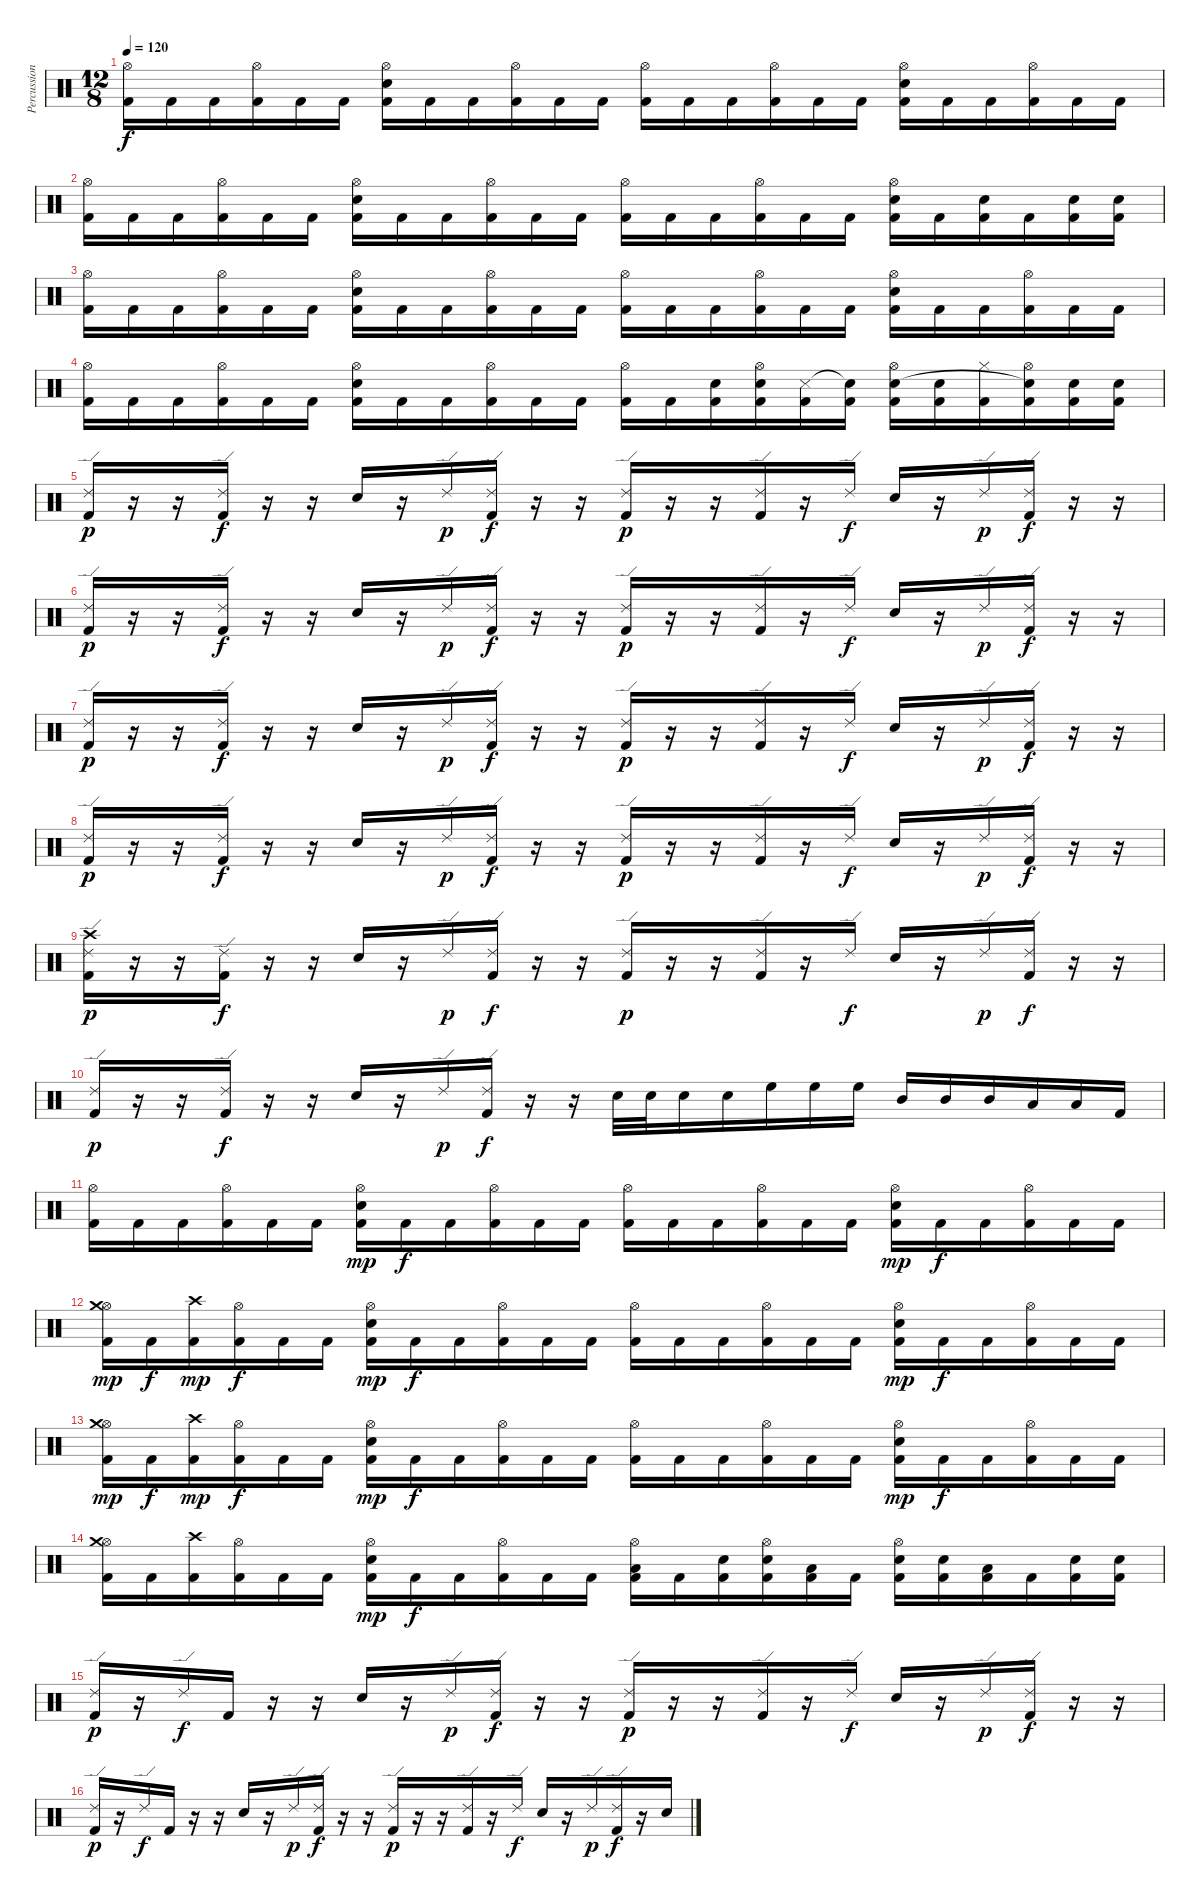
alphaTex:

\track ("Percussions" "Percussion") {instrument percussion}
\staff {score}
\articulation defaults
\ts (12 8)
\tempo 120
\clef neutral
\ks c
("Hi-Hat (open)" "Kick (hit) 2").16{dy f} "Kick (hit) 2".16 "Kick (hit) 2".16 ("Hi-Hat (open)" "Kick (hit) 2").16 "Kick (hit) 2".16 "Kick (hit) 2".16 ("Hi-Hat (open)" "Kick (hit) 2" "Snare (hit) 2").16 "Kick (hit) 2".16 "Kick (hit) 2".16 ("Hi-Hat (open)" "Kick (hit) 2").16 "Kick (hit) 2".16 "Kick (hit) 2".16 ("Hi-Hat (open)" "Kick (hit) 2").16 "Kick (hit) 2".16 "Kick (hit) 2".16 ("Hi-Hat (open)" "Kick (hit) 2").16 "Kick (hit) 2".16 "Kick (hit) 2".16 ("Hi-Hat (open)" "Kick (hit) 2" "Snare (hit) 2").16 "Kick (hit) 2".16 "Kick (hit) 2".16 ("Hi-Hat (open)" "Kick (hit) 2").16 "Kick (hit) 2".16 "Kick (hit) 2".16 |
("Hi-Hat (open)" "Kick (hit) 2").16 "Kick (hit) 2".16 "Kick (hit) 2".16 ("Hi-Hat (open)" "Kick (hit) 2").16 "Kick (hit) 2".16 "Kick (hit) 2".16 ("Hi-Hat (open)" "Kick (hit) 2" "Snare (hit) 2").16 "Kick (hit) 2".16 "Kick (hit) 2".16 ("Hi-Hat (open)" "Kick (hit) 2").16 "Kick (hit) 2".16 "Kick (hit) 2".16 ("Hi-Hat (open)" "Kick (hit) 2").16 "Kick (hit) 2".16 "Kick (hit) 2".16 ("Hi-Hat (open)" "Kick (hit) 2").16 "Kick (hit) 2".16 "Kick (hit) 2".16 ("Hi-Hat (open)" "Kick (hit) 2" "Snare (hit) 2").16 "Kick (hit) 2".16 ("Kick (hit) 2" "Snare (hit) 2").16 "Kick (hit) 2".16 ("Kick (hit) 2" "Snare (hit) 2").16 ("Kick (hit) 2" "Snare (hit) 2").16 |
("Hi-Hat (open)" "Kick (hit) 2").16 "Kick (hit) 2".16 "Kick (hit) 2".16 ("Hi-Hat (open)" "Kick (hit) 2").16 "Kick (hit) 2".16 "Kick (hit) 2".16 ("Hi-Hat (open)" "Kick (hit) 2" "Snare (hit) 2").16 "Kick (hit) 2".16 "Kick (hit) 2".16 ("Hi-Hat (open)" "Kick (hit) 2").16 "Kick (hit) 2".16 "Kick (hit) 2".16 ("Hi-Hat (open)" "Kick (hit) 2").16 "Kick (hit) 2".16 "Kick (hit) 2".16 ("Hi-Hat (open)" "Kick (hit) 2").16 "Kick (hit) 2".16 "Kick (hit) 2".16 ("Hi-Hat (open)" "Kick (hit) 2" "Snare (hit) 2").16 "Kick (hit) 2".16 "Kick (hit) 2".16 ("Hi-Hat (open)" "Kick (hit) 2").16 "Kick (hit) 2".16 "Kick (hit) 2".16 |
("Hi-Hat (open)" "Kick (hit) 2").16 "Kick (hit) 2".16 "Kick (hit) 2".16 ("Hi-Hat (open)" "Kick (hit) 2").16 "Kick (hit) 2".16 "Kick (hit) 2".16 ("Hi-Hat (open)" "Kick (hit) 2" "Snare (hit) 2").16 "Kick (hit) 2".16 "Kick (hit) 2".16 ("Hi-Hat (open)" "Kick (hit) 2").16 "Kick (hit) 2".16 "Kick (hit) 2".16 ("Hi-Hat (open)" "Kick (hit) 2").16 "Kick (hit) 2".16 ("Kick (hit) 2" "Snare (hit) 2").16 ("Hi-Hat (open)" "Kick (hit) 2" "Snare (hit) 2").16 ("Kick (hit) 2" "Snare (side stick) 3").16 ("Kick (hit) 2" "Snare (hit)"{t}).16 ("Hi-Hat (open)" "Kick (hit) 2" "Snare (hit) 2").16 ("Kick (hit) 2" "Snare (hit) 2").16 ("Kick (hit) 2" "Hi-Hat (closed)").16 ("Hi-Hat (open)" "Kick (hit) 2" "Snare (hit)"{t}).16 ("Kick (hit) 2" "Snare (hit) 2").16 ("Kick (hit) 2" "Snare (hit) 2").16 |
("Ride (edge) 2" "Kick (hit) 2").16{dy p} r.16 r.16 ("Ride (edge) 2" "Kick (hit) 2").16{dy f} r.16 r.16 "Snare (hit) 2".16 r.16 "Ride (edge) 2".16{dy p} ("Ride (edge) 2" "Kick (hit) 2").16{dy f} r.16 r.16 ("Ride (edge) 2" "Kick (hit) 2").16{dy p} r.16 r.16 ("Ride (edge) 2" "Kick (hit) 2").16 r.16 "Ride (edge) 2".16{dy f} "Snare (hit) 2".16 r.16 "Ride (edge) 2".16{dy p} ("Ride (edge) 2" "Kick (hit) 2").16{dy f} r.16 r.16 |
("Ride (edge) 2" "Kick (hit) 2").16{dy p} r.16 r.16 ("Ride (edge) 2" "Kick (hit) 2").16{dy f} r.16 r.16 "Snare (hit) 2".16 r.16 "Ride (edge) 2".16{dy p} ("Ride (edge) 2" "Kick (hit) 2").16{dy f} r.16 r.16 ("Ride (edge) 2" "Kick (hit) 2").16{dy p} r.16 r.16 ("Ride (edge) 2" "Kick (hit) 2").16 r.16 "Ride (edge) 2".16{dy f} "Snare (hit) 2".16 r.16 "Ride (edge) 2".16{dy p} ("Ride (edge) 2" "Kick (hit) 2").16{dy f} r.16 r.16 |
("Ride (edge) 2" "Kick (hit) 2").16{dy p} r.16 r.16 ("Ride (edge) 2" "Kick (hit) 2").16{dy f} r.16 r.16 "Snare (hit) 2".16 r.16 "Ride (edge) 2".16{dy p} ("Ride (edge) 2" "Kick (hit) 2").16{dy f} r.16 r.16 ("Ride (edge) 2" "Kick (hit) 2").16{dy p} r.16 r.16 ("Ride (edge) 2" "Kick (hit) 2").16 r.16 "Ride (edge) 2".16{dy f} "Snare (hit) 2".16 r.16 "Ride (edge) 2".16{dy p} ("Ride (edge) 2" "Kick (hit) 2").16{dy f} r.16 r.16 |
("Ride (edge) 2" "Kick (hit) 2").16{dy p} r.16 r.16 ("Ride (edge) 2" "Kick (hit) 2").16{dy f} r.16 r.16 "Snare (hit) 2".16 r.16 "Ride (edge) 2".16{dy p} ("Ride (edge) 2" "Kick (hit) 2").16{dy f} r.16 r.16 ("Ride (edge) 2" "Kick (hit) 2").16{dy p} r.16 r.16 ("Ride (edge) 2" "Kick (hit) 2").16 r.16 "Ride (edge) 2".16{dy f} "Snare (hit) 2".16 r.16 "Ride (edge) 2".16{dy p} ("Ride (edge) 2" "Kick (hit) 2").16{dy f} r.16 r.16 |
("Ride (edge) 2" "Kick (hit) 2" "Crash high (hit)").16{dy p} r.16 r.16 ("Ride (edge) 2" "Kick (hit) 2").16{dy f} r.16 r.16 "Snare (hit) 2".16 r.16 "Ride (edge) 2".16{dy p} ("Ride (edge) 2" "Kick (hit) 2").16{dy f} r.16 r.16 ("Ride (edge) 2" "Kick (hit) 2").16{dy p} r.16 r.16 ("Ride (edge) 2" "Kick (hit) 2").16 r.16 "Ride (edge) 2".16{dy f} "Snare (hit) 2".16 r.16 "Ride (edge) 2".16{dy p} ("Ride (edge) 2" "Kick (hit) 2").16{dy f} r.16 r.16 |
("Ride (edge) 2" "Kick (hit) 2").16{dy p} r.16 r.16 ("Ride (edge) 2" "Kick (hit) 2").16{dy f} r.16 r.16 "Snare (hit) 2".16 r.16 "Ride (edge) 2".16{dy p} ("Ride (edge) 2" "Kick (hit) 2").16{dy f} r.16 r.16 "Snare (hit) 2".32 "Snare (hit) 2".32 "Snare (hit) 2".16 "Snare (hit) 2".16 "High Floor Tom (hit)".16 "High Floor Tom (hit)".16 "High Floor Tom (hit)".16 "Mid Tom (hit)".16 "Mid Tom (hit)".16 "Mid Tom (hit)".16 "Low Tom (hit)".16 "Low Tom (hit)".16 "Kick (hit) 2".16 |
("Hi-Hat (open)" "Kick (hit) 2").16 "Kick (hit) 2".16 "Kick (hit) 2".16 ("Hi-Hat (open)" "Kick (hit) 2").16 "Kick (hit) 2".16 "Kick (hit) 2".16 ("Hi-Hat (open)" "Kick (hit) 2" "Snare (hit) 2").16{dy mp} "Kick (hit) 2".16{dy f} "Kick (hit) 2".16 ("Hi-Hat (open)" "Kick (hit) 2").16 "Kick (hit) 2".16 "Kick (hit) 2".16 ("Hi-Hat (open)" "Kick (hit) 2").16 "Kick (hit) 2".16 "Kick (hit) 2".16 ("Hi-Hat (open)" "Kick (hit) 2").16 "Kick (hit) 2".16 "Kick (hit) 2".16 ("Hi-Hat (open)" "Kick (hit) 2" "Snare (hit) 2").16{dy mp} "Kick (hit) 2".16{dy f} "Kick (hit) 2".16 ("Hi-Hat (open)" "Kick (hit) 2").16 "Kick (hit) 2".16 "Kick (hit) 2".16 |
("Hi-Hat (open)" "Kick (hit) 2" "Crash medium (hit)").16{dy mp} "Kick (hit) 2".16{dy f} ("Kick (hit) 2" "Crash high (hit)").16{dy mp} ("Hi-Hat (open)" "Kick (hit) 2").16{dy f} "Kick (hit) 2".16 "Kick (hit) 2".16 ("Hi-Hat (open)" "Kick (hit) 2" "Snare (hit) 2").16{dy mp} "Kick (hit) 2".16{dy f} "Kick (hit) 2".16 ("Hi-Hat (open)" "Kick (hit) 2").16 "Kick (hit) 2".16 "Kick (hit) 2".16 ("Hi-Hat (open)" "Kick (hit) 2").16 "Kick (hit) 2".16 "Kick (hit) 2".16 ("Hi-Hat (open)" "Kick (hit) 2").16 "Kick (hit) 2".16 "Kick (hit) 2".16 ("Hi-Hat (open)" "Kick (hit) 2" "Snare (hit) 2").16{dy mp} "Kick (hit) 2".16{dy f} "Kick (hit) 2".16 ("Hi-Hat (open)" "Kick (hit) 2").16 "Kick (hit) 2".16 "Kick (hit) 2".16 |
("Hi-Hat (open)" "Kick (hit) 2" "Crash medium (hit)").16{dy mp} "Kick (hit) 2".16{dy f} ("Kick (hit) 2" "Crash high (hit)").16{dy mp} ("Hi-Hat (open)" "Kick (hit) 2").16{dy f} "Kick (hit) 2".16 "Kick (hit) 2".16 ("Hi-Hat (open)" "Kick (hit) 2" "Snare (hit) 2").16{dy mp} "Kick (hit) 2".16{dy f} "Kick (hit) 2".16 ("Hi-Hat (open)" "Kick (hit) 2").16 "Kick (hit) 2".16 "Kick (hit) 2".16 ("Hi-Hat (open)" "Kick (hit) 2").16 "Kick (hit) 2".16 "Kick (hit) 2".16 ("Hi-Hat (open)" "Kick (hit) 2").16 "Kick (hit) 2".16 "Kick (hit) 2".16 ("Hi-Hat (open)" "Kick (hit) 2" "Snare (hit) 2").16{dy mp} "Kick (hit) 2".16{dy f} "Kick (hit) 2".16 ("Hi-Hat (open)" "Kick (hit) 2").16 "Kick (hit) 2".16 "Kick (hit) 2".16 |
("Hi-Hat (open)" "Kick (hit) 2" "Crash medium (hit)").16 "Kick (hit) 2".16 ("Kick (hit) 2" "Crash high (hit)").16 ("Hi-Hat (open)" "Kick (hit) 2").16 "Kick (hit) 2".16 "Kick (hit) 2".16 ("Hi-Hat (open)" "Kick (hit) 2" "Snare (hit) 2").16{dy mp} "Kick (hit) 2".16{dy f} "Kick (hit) 2".16 ("Hi-Hat (open)" "Kick (hit) 2").16 "Kick (hit) 2".16 "Kick (hit) 2".16 ("Hi-Hat (open)" "Kick (hit) 2" "Low Floor Tom (hit)").16 "Kick (hit) 2".16 ("Kick (hit) 2" "Snare (hit) 2").16 ("Hi-Hat (open)" "Kick (hit) 2" "Snare (hit) 2").16 ("Kick (hit) 2" "Low Floor Tom (hit)").16 "Kick (hit) 2".16 ("Hi-Hat (open)" "Kick (hit) 2" "Snare (hit) 2").16 ("Kick (hit) 2" "Snare (hit) 2").16 ("Kick (hit) 2" "Low Floor Tom (hit)").16 "Kick (hit) 2".16 ("Kick (hit) 2" "Snare (hit) 2").16 ("Kick (hit) 2" "Snare (hit) 2").16 |
("Ride (edge) 2" "Kick (hit) 2").16{dy p} r.16 "Ride (edge) 2".16{dy f} "Kick (hit) 2".16 r.16 r.16 "Snare (hit) 2".16 r.16 "Ride (edge) 2".16{dy p} ("Ride (edge) 2" "Kick (hit) 2").16{dy f} r.16 r.16 ("Ride (edge) 2" "Kick (hit) 2").16{dy p} r.16 r.16 ("Ride (edge) 2" "Kick (hit) 2").16 r.16 "Ride (edge) 2".16{dy f} "Snare (hit) 2".16 r.16 "Ride (edge) 2".16{dy p} ("Ride (edge) 2" "Kick (hit) 2").16{dy f} r.16 r.16 |
("Ride (edge) 2" "Kick (hit) 2").16{dy p} r.16 "Ride (edge) 2".16{dy f} "Kick (hit) 2".16 r.16 r.16 "Snare (hit) 2".16 r.16 "Ride (edge) 2".16{dy p} ("Ride (edge) 2" "Kick (hit) 2").16{dy f} r.16 r.16 ("Ride (edge) 2" "Kick (hit) 2").16{dy p} r.16 r.16 ("Ride (edge) 2" "Kick (hit) 2").16 r.16 "Ride (edge) 2".16{dy f} "Snare (hit) 2".16 r.16 "Ride (edge) 2".16{dy p} ("Ride (edge) 2" "Kick (hit) 2").16{dy f} r.16 "Snare (hit) 2".16
